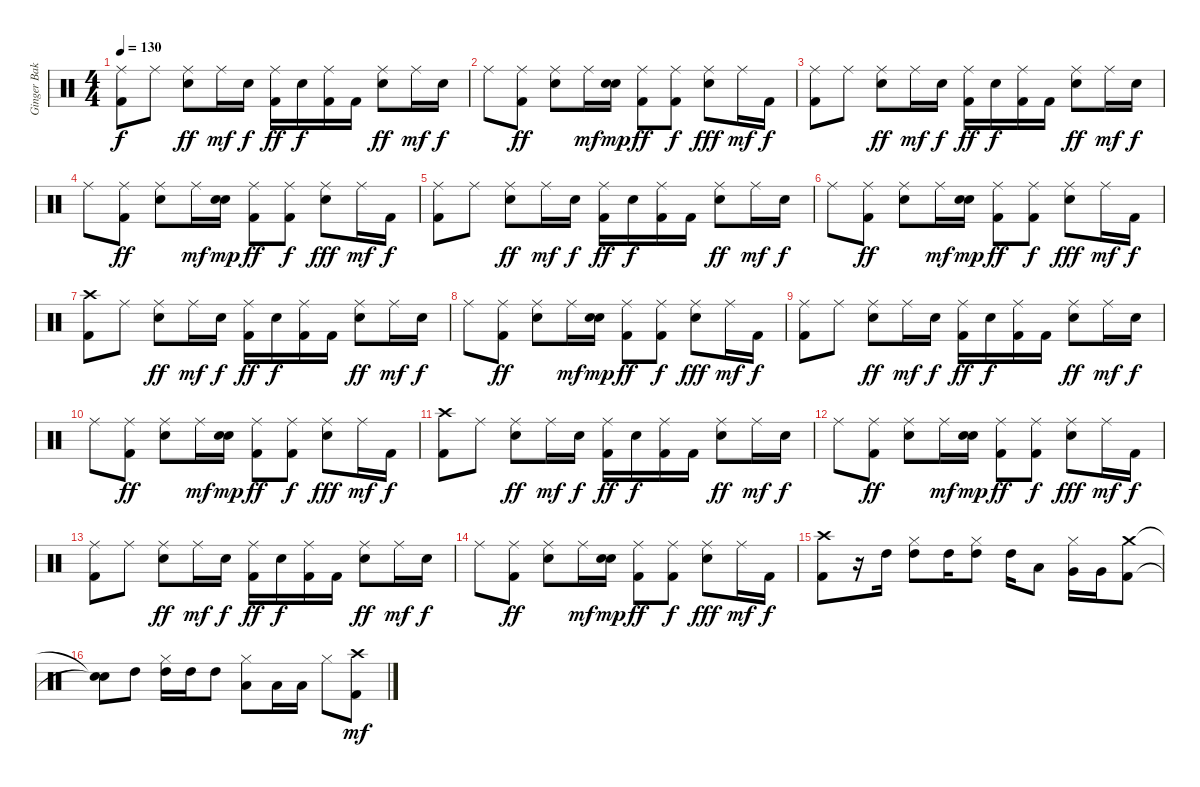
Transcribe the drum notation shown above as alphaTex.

\track ("Ginger Baker (Drums)" "Ginger Bak") {instrument percussion}
\staff {score}
\articulation defaults
\ts (4 4)
\tempo 130
\clef neutral
\ks c
("Ride (middle)" "Kick (hit) 2").8{dy f} "Ride (middle)".8 ("Ride (middle)" "Snare (hit) 2").8{dy ff} "Ride (middle)".16{dy mf} "Snare (hit) 2".16{dy f} ("Ride (middle)" "Kick (hit) 2").16{dy ff} "Snare (hit) 2".16{dy f} ("Ride (middle)" "Kick (hit) 2").16 "Kick (hit) 2".16 ("Ride (middle)" "Snare (hit) 2").8{dy ff} "Ride (middle)".16{dy mf} "Snare (hit) 2".16{dy f} |
"Ride (middle)".8 ("Ride (middle)" "Kick (hit) 2").8{dy ff} ("Ride (middle)" "Snare (hit) 2").8 "Ride (middle)".16{dy mf} ("Snare (hit) 2" "Electric Snare (hit)").16{dy mp} ("Ride (middle)" "Kick (hit) 2").8{dy ff} ("Ride (middle)" "Kick (hit) 2").8{dy f} ("Ride (middle)" "Snare (hit) 2").8{dy fff} "Ride (middle)".16{dy mf} "Kick (hit) 2".16{dy f} |
("Ride (middle)" "Kick (hit) 2").8 "Ride (middle)".8 ("Ride (middle)" "Snare (hit) 2").8{dy ff} "Ride (middle)".16{dy mf} "Snare (hit) 2".16{dy f} ("Ride (middle)" "Kick (hit) 2").16{dy ff} "Snare (hit) 2".16{dy f} ("Ride (middle)" "Kick (hit) 2").16 "Kick (hit) 2".16 ("Ride (middle)" "Snare (hit) 2").8{dy ff} "Ride (middle)".16{dy mf} "Snare (hit) 2".16{dy f} |
"Ride (middle)".8 ("Ride (middle)" "Kick (hit) 2").8{dy ff} ("Ride (middle)" "Snare (hit) 2").8 "Ride (middle)".16{dy mf} ("Snare (hit) 2" "Electric Snare (hit)").16{dy mp} ("Ride (middle)" "Kick (hit) 2").8{dy ff} ("Ride (middle)" "Kick (hit) 2").8{dy f} ("Ride (middle)" "Snare (hit) 2").8{dy fff} "Ride (middle)".16{dy mf} "Kick (hit) 2".16{dy f} |
("Ride (middle)" "Kick (hit) 2").8 "Ride (middle)".8 ("Ride (middle)" "Snare (hit) 2").8{dy ff} "Ride (middle)".16{dy mf} "Snare (hit) 2".16{dy f} ("Ride (middle)" "Kick (hit) 2").16{dy ff} "Snare (hit) 2".16{dy f} ("Ride (middle)" "Kick (hit) 2").16 "Kick (hit) 2".16 ("Ride (middle)" "Snare (hit) 2").8{dy ff} "Ride (middle)".16{dy mf} "Snare (hit) 2".16{dy f} |
"Ride (middle)".8 ("Ride (middle)" "Kick (hit) 2").8{dy ff} ("Ride (middle)" "Snare (hit) 2").8 "Ride (middle)".16{dy mf} ("Snare (hit) 2" "Electric Snare (hit)").16{dy mp} ("Ride (middle)" "Kick (hit) 2").8{dy ff} ("Ride (middle)" "Kick (hit) 2").8{dy f} ("Ride (middle)" "Snare (hit) 2").8{dy fff} "Ride (middle)".16{dy mf} "Kick (hit) 2".16{dy f} |
("Crash high (hit)" "Kick (hit) 2").8 "Ride (middle)".8 ("Ride (middle)" "Snare (hit) 2").8{dy ff} "Ride (middle)".16{dy mf} "Snare (hit) 2".16{dy f} ("Ride (middle)" "Kick (hit) 2").16{dy ff} "Snare (hit) 2".16{dy f} ("Ride (middle)" "Kick (hit) 2").16 "Kick (hit) 2".16 ("Ride (middle)" "Snare (hit) 2").8{dy ff} "Ride (middle)".16{dy mf} "Snare (hit) 2".16{dy f} |
"Ride (middle)".8 ("Ride (middle)" "Kick (hit) 2").8{dy ff} ("Ride (middle)" "Snare (hit) 2").8 "Ride (middle)".16{dy mf} ("Snare (hit) 2" "Electric Snare (hit)").16{dy mp} ("Ride (middle)" "Kick (hit) 2").8{dy ff} ("Ride (middle)" "Kick (hit) 2").8{dy f} ("Ride (middle)" "Snare (hit) 2").8{dy fff} "Ride (middle)".16{dy mf} "Kick (hit) 2".16{dy f} |
("Ride (middle)" "Kick (hit) 2").8 "Ride (middle)".8 ("Ride (middle)" "Snare (hit) 2").8{dy ff} "Ride (middle)".16{dy mf} "Snare (hit) 2".16{dy f} ("Ride (middle)" "Kick (hit) 2").16{dy ff} "Snare (hit) 2".16{dy f} ("Ride (middle)" "Kick (hit) 2").16 "Kick (hit) 2".16 ("Ride (middle)" "Snare (hit) 2").8{dy ff} "Ride (middle)".16{dy mf} "Snare (hit) 2".16{dy f} |
"Ride (middle)".8 ("Ride (middle)" "Kick (hit) 2").8{dy ff} ("Ride (middle)" "Snare (hit) 2").8 "Ride (middle)".16{dy mf} ("Snare (hit) 2" "Electric Snare (hit)").16{dy mp} ("Ride (middle)" "Kick (hit) 2").8{dy ff} ("Ride (middle)" "Kick (hit) 2").8{dy f} ("Ride (middle)" "Snare (hit) 2").8{dy fff} "Ride (middle)".16{dy mf} "Kick (hit) 2".16{dy f} |
("Crash high (hit)" "Kick (hit) 2").8 "Ride (middle)".8 ("Ride (middle)" "Snare (hit) 2").8{dy ff} "Ride (middle)".16{dy mf} "Snare (hit) 2".16{dy f} ("Ride (middle)" "Kick (hit) 2").16{dy ff} "Snare (hit) 2".16{dy f} ("Ride (middle)" "Kick (hit) 2").16 "Kick (hit) 2".16 ("Ride (middle)" "Snare (hit) 2").8{dy ff} "Ride (middle)".16{dy mf} "Snare (hit) 2".16{dy f} |
"Ride (middle)".8 ("Ride (middle)" "Kick (hit) 2").8{dy ff} ("Ride (middle)" "Snare (hit) 2").8 "Ride (middle)".16{dy mf} ("Snare (hit) 2" "Electric Snare (hit)").16{dy mp} ("Ride (middle)" "Kick (hit) 2").8{dy ff} ("Ride (middle)" "Kick (hit) 2").8{dy f} ("Ride (middle)" "Snare (hit) 2").8{dy fff} "Ride (middle)".16{dy mf} "Kick (hit) 2".16{dy f} |
("Ride (middle)" "Kick (hit) 2").8 "Ride (middle)".8 ("Ride (middle)" "Snare (hit) 2").8{dy ff} "Ride (middle)".16{dy mf} "Snare (hit) 2".16{dy f} ("Ride (middle)" "Kick (hit) 2").16{dy ff} "Snare (hit) 2".16{dy f} ("Ride (middle)" "Kick (hit) 2").16 "Kick (hit) 2".16 ("Ride (middle)" "Snare (hit) 2").8{dy ff} "Ride (middle)".16{dy mf} "Snare (hit) 2".16{dy f} |
"Ride (middle)".8 ("Ride (middle)" "Kick (hit) 2").8{dy ff} ("Ride (middle)" "Snare (hit) 2").8 "Ride (middle)".16{dy mf} ("Snare (hit) 2" "Electric Snare (hit)").16{dy mp} ("Ride (middle)" "Kick (hit) 2").8{dy ff} ("Ride (middle)" "Kick (hit) 2").8{dy f} ("Ride (middle)" "Snare (hit) 2").8{dy fff} "Ride (middle)".16{dy mf} "Kick (hit) 2".16{dy f} |
("Crash high (hit)" "Kick (hit) 2").8 r.16 "High Tom (hit)".16 ("Hi-Hat (closed)" "High Tom (hit)").8 "High Tom (hit)".16 ("Hi-Hat (closed)" "High Tom (hit)").8 "High Tom (hit)".16 "Low Tom (hit)".8 ("Hi-Hat (closed)" "Very Low Tom (hit)").16 "Very Low Tom (hit)".16 ("Crash medium (hit)" "Kick (hit) 2").8 |
("Snare (hit)"{t} "Snare (hit)"{t}).8 "High Tom (hit)".8 ("Hi-Hat (closed)" "High Tom (hit)").16 "High Tom (hit)".16 "High Tom (hit)".8 ("Hi-Hat (closed)" "Low Tom (hit)").8 "Low Tom (hit)".16 "Low Tom (hit)".16 "Hi-Hat (closed)".8 ("Crash high (hit)" "Kick (hit) 2").8{dy mf}
